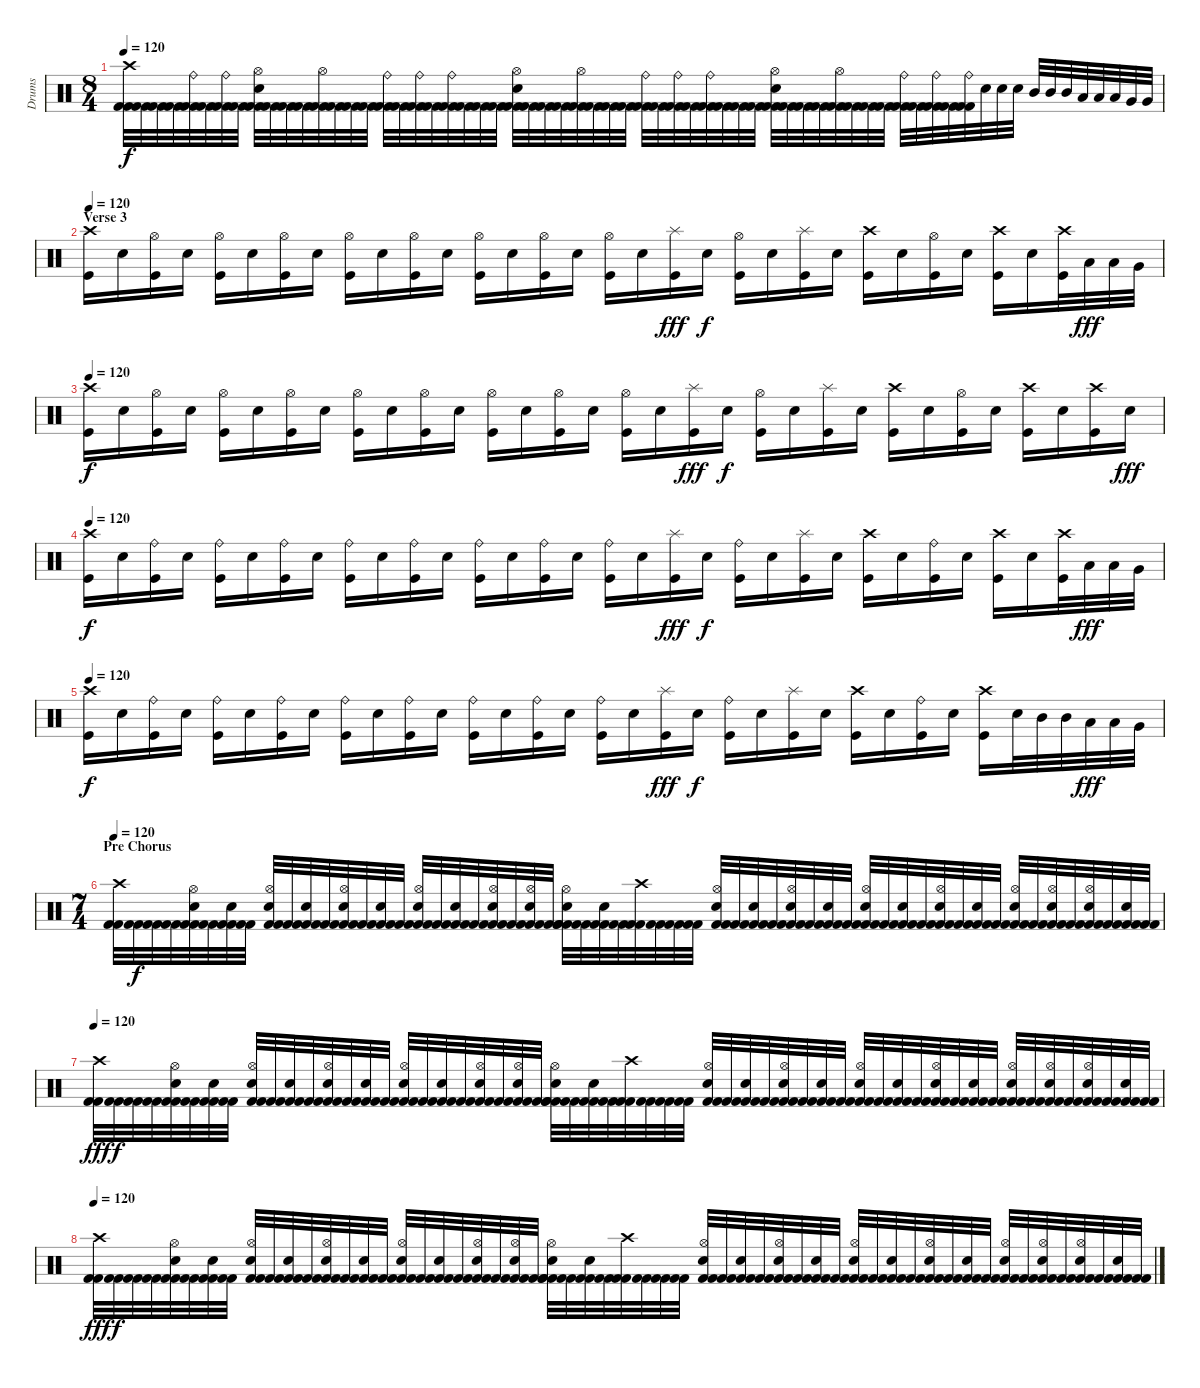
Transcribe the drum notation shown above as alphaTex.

\track ("Drums" "Drums") {instrument percussion}
\staff {score}
\articulation defaults
\ts (8 4)
\tempo 120
\clef neutral
\ks c
("Crash high (hit)" "Kick (hit) 2" "Kick (hit) 2").32{dy f} ("Kick (hit) 2" "Kick (hit) 2").32 ("Kick (hit) 2" "Kick (hit) 2").32 ("Kick (hit) 2" "Kick (hit) 2").32 ("Ride (bell)" "Kick (hit) 2" "Kick (hit) 2").32 ("Kick (hit) 2" "Kick (hit) 2").32 ("Ride (bell)" "Kick (hit) 2" "Kick (hit) 2").32 ("Kick (hit) 2" "Kick (hit) 2").32 ("Hi-Hat (open)" "Electric Snare (hit)" "Kick (hit) 2" "Kick (hit) 2").32 ("Kick (hit) 2" "Kick (hit) 2").32 ("Kick (hit) 2" "Kick (hit) 2").32 ("Kick (hit) 2" "Kick (hit) 2").32 ("Hi-Hat (open)" "Kick (hit) 2" "Kick (hit) 2").32 ("Kick (hit) 2" "Kick (hit) 2").32 ("Kick (hit) 2" "Kick (hit) 2").32 ("Kick (hit) 2" "Kick (hit) 2").32 ("Ride (bell)" "Kick (hit) 2" "Kick (hit) 2").32 ("Kick (hit) 2" "Kick (hit) 2").32 ("Ride (bell)" "Kick (hit) 2" "Kick (hit) 2").32 ("Kick (hit) 2" "Kick (hit) 2").32 ("Ride (bell)" "Kick (hit) 2" "Kick (hit) 2").32 ("Kick (hit) 2" "Kick (hit) 2").32 ("Kick (hit) 2" "Kick (hit) 2").32 ("Kick (hit) 2" "Kick (hit) 2").32 ("Hi-Hat (open)" "Electric Snare (hit)" "Kick (hit) 2" "Kick (hit) 2").32 ("Kick (hit) 2" "Kick (hit) 2").32 ("Kick (hit) 2" "Kick (hit) 2").32 ("Kick (hit) 2" "Kick (hit) 2").32 ("Hi-Hat (open)" "Kick (hit) 2" "Kick (hit) 2").32 ("Kick (hit) 2" "Kick (hit) 2").32 ("Kick (hit) 2" "Kick (hit) 2").32 ("Kick (hit) 2" "Kick (hit) 2").32 ("Ride (bell)" "Kick (hit) 2" "Kick (hit) 2").32 ("Kick (hit) 2" "Kick (hit) 2").32 ("Ride (bell)" "Kick (hit) 2" "Kick (hit) 2").32 ("Kick (hit) 2" "Kick (hit) 2").32 ("Ride (bell)" "Kick (hit) 2" "Kick (hit) 2").32 ("Kick (hit) 2" "Kick (hit) 2").32 ("Kick (hit) 2" "Kick (hit) 2").32 ("Kick (hit) 2" "Kick (hit) 2").32 ("Hi-Hat (open)" "Electric Snare (hit)" "Kick (hit) 2" "Kick (hit) 2").32 ("Kick (hit) 2" "Kick (hit) 2").32 ("Kick (hit) 2" "Kick (hit) 2").32 ("Kick (hit) 2" "Kick (hit) 2").32 ("Hi-Hat (open)" "Kick (hit) 2" "Kick (hit) 2").32 ("Kick (hit) 2" "Kick (hit) 2").32 ("Kick (hit) 2" "Kick (hit) 2").32 ("Kick (hit) 2" "Kick (hit) 2").32 ("Ride (bell)" "Kick (hit) 2" "Kick (hit) 2").32 ("Kick (hit) 2" "Kick (hit) 2").32 ("Ride (bell)" "Kick (hit) 2" "Kick (hit) 2").32 ("Kick (hit) 2" "Kick (hit) 2").32 ("Ride (bell)" "Kick (hit) 2" "Kick (hit) 2").32 "Electric Snare (hit)".32 "Electric Snare (hit)".32 "Electric Snare (hit)".32 "Mid Tom (hit)".32 "Mid Tom (hit)".32 "Mid Tom (hit)".32 "Low Tom (hit)".32 "Low Tom (hit)".32 "Low Tom (hit)".32 "Very Low Tom (hit)".32 "Very Low Tom (hit)".32 |
\section ("" "Verse 3")
\tempo 120
("Crash high (hit)" "Kick (hit)").16 "Electric Snare (hit)".16 ("Hi-Hat (open)" "Kick (hit)").16 "Electric Snare (hit)".16 ("Hi-Hat (open)" "Kick (hit)").16 "Electric Snare (hit)".16 ("Hi-Hat (open)" "Kick (hit)").16 "Electric Snare (hit)".16 ("Hi-Hat (open)" "Kick (hit)").16 "Electric Snare (hit)".16 ("Hi-Hat (open)" "Kick (hit)").16 "Electric Snare (hit)".16 ("Hi-Hat (open)" "Kick (hit)").16 "Electric Snare (hit)".16 ("Hi-Hat (open)" "Kick (hit)").16 "Electric Snare (hit)".16 ("Hi-Hat (open)" "Kick (hit)").16 "Electric Snare (hit)".16 ("Splash (hit)" "Kick (hit)").16{dy fff} "Electric Snare (hit)".16{dy f} ("Hi-Hat (open)" "Kick (hit)").16 "Electric Snare (hit)".16 ("Splash (hit)" "Kick (hit)").16 "Electric Snare (hit)".16 ("Crash high (hit)" "Kick (hit)").16 "Electric Snare (hit)".16 ("Hi-Hat (open)" "Kick (hit)").16 "Electric Snare (hit)".16 ("Crash high (hit)" "Kick (hit)").16 "Electric Snare (hit)".16 ("Crash high (hit)" "Kick (hit)").32 "Low Tom (hit)".32{dy fff} "Low Tom (hit)".32 "Very Low Tom (hit)".32 |
\tempo 120
("Crash high (hit)" "Kick (hit)").16{dy f} "Electric Snare (hit)".16 ("Hi-Hat (open)" "Kick (hit)").16 "Electric Snare (hit)".16 ("Hi-Hat (open)" "Kick (hit)").16 "Electric Snare (hit)".16 ("Hi-Hat (open)" "Kick (hit)").16 "Electric Snare (hit)".16 ("Hi-Hat (open)" "Kick (hit)").16 "Electric Snare (hit)".16 ("Hi-Hat (open)" "Kick (hit)").16 "Electric Snare (hit)".16 ("Hi-Hat (open)" "Kick (hit)").16 "Electric Snare (hit)".16 ("Hi-Hat (open)" "Kick (hit)").16 "Electric Snare (hit)".16 ("Hi-Hat (open)" "Kick (hit)").16 "Electric Snare (hit)".16 ("Splash (hit)" "Kick (hit)").16{dy fff} "Electric Snare (hit)".16{dy f} ("Hi-Hat (open)" "Kick (hit)").16 "Electric Snare (hit)".16 ("Splash (hit)" "Kick (hit)").16 "Electric Snare (hit)".16 ("Crash high (hit)" "Kick (hit)").16 "Electric Snare (hit)".16 ("Hi-Hat (open)" "Kick (hit)").16 "Electric Snare (hit)".16 ("Crash high (hit)" "Kick (hit)").16 "Electric Snare (hit)".16 ("Crash high (hit)" "Kick (hit)").16 "Electric Snare (hit)".16{dy fff} |
\tempo 120
("Crash high (hit)" "Kick (hit)").16{dy f} "Electric Snare (hit)".16 ("Ride (bell)" "Kick (hit)").16 "Electric Snare (hit)".16 ("Ride (bell)" "Kick (hit)").16 "Electric Snare (hit)".16 ("Ride (bell)" "Kick (hit)").16 "Electric Snare (hit)".16 ("Ride (bell)" "Kick (hit)").16 "Electric Snare (hit)".16 ("Ride (bell)" "Kick (hit)").16 "Electric Snare (hit)".16 ("Ride (bell)" "Kick (hit)").16 "Electric Snare (hit)".16 ("Ride (bell)" "Kick (hit)").16 "Electric Snare (hit)".16 ("Ride (bell)" "Kick (hit)").16 "Electric Snare (hit)".16 ("Splash (hit)" "Kick (hit)").16{dy fff} "Electric Snare (hit)".16{dy f} ("Ride (bell)" "Kick (hit)").16 "Electric Snare (hit)".16 ("Splash (hit)" "Kick (hit)").16 "Electric Snare (hit)".16 ("Crash high (hit)" "Kick (hit)").16 "Electric Snare (hit)".16 ("Ride (bell)" "Kick (hit)").16 "Electric Snare (hit)".16 ("Crash high (hit)" "Kick (hit)").16 "Electric Snare (hit)".16 ("Crash high (hit)" "Kick (hit)").32 "Low Tom (hit)".32{dy fff} "Low Tom (hit)".32 "Very Low Tom (hit)".32 |
\tempo 120
("Crash high (hit)" "Kick (hit)").16{dy f} "Electric Snare (hit)".16 ("Ride (bell)" "Kick (hit)").16 "Electric Snare (hit)".16 ("Ride (bell)" "Kick (hit)").16 "Electric Snare (hit)".16 ("Ride (bell)" "Kick (hit)").16 "Electric Snare (hit)".16 ("Ride (bell)" "Kick (hit)").16 "Electric Snare (hit)".16 ("Ride (bell)" "Kick (hit)").16 "Electric Snare (hit)".16 ("Ride (bell)" "Kick (hit)").16 "Electric Snare (hit)".16 ("Ride (bell)" "Kick (hit)").16 "Electric Snare (hit)".16 ("Ride (bell)" "Kick (hit)").16 "Electric Snare (hit)".16 ("Splash (hit)" "Kick (hit)").16{dy fff} "Electric Snare (hit)".16{dy f} ("Ride (bell)" "Kick (hit)").16 "Electric Snare (hit)".16 ("Splash (hit)" "Kick (hit)").16 "Electric Snare (hit)".16 ("Crash high (hit)" "Kick (hit)").16 "Electric Snare (hit)".16 ("Ride (bell)" "Kick (hit)").16 "Electric Snare (hit)".16 ("Crash high (hit)" "Kick (hit)").16 "Electric Snare (hit)".32 "Mid Tom (hit)".32 "Mid Tom (hit)".32 "Low Tom (hit)".32{dy fff} "Low Tom (hit)".32 "Very Low Tom (hit)".32 |
\ts (7 4)
\section ("" "Pre Chorus")
\tempo 120
("Crash high (hit)" "Kick (hit) 2" "Kick (hit) 2").32 ("Kick (hit) 2" "Kick (hit) 2").32{dy f} ("Kick (hit) 2" "Kick (hit) 2").32 ("Kick (hit) 2" "Kick (hit) 2").32 ("Hi-Hat (open)" "Electric Snare (hit)" "Kick (hit) 2" "Kick (hit) 2").32 ("Kick (hit) 2" "Kick (hit) 2").32 ("Electric Snare (hit)" "Kick (hit) 2" "Kick (hit) 2").32 ("Kick (hit) 2" "Kick (hit) 2").32 ("Hi-Hat (open)" "Electric Snare (hit)" "Kick (hit) 2" "Kick (hit) 2").32 ("Kick (hit) 2" "Kick (hit) 2").32 ("Electric Snare (hit)" "Kick (hit) 2" "Kick (hit) 2").32 ("Kick (hit) 2" "Kick (hit) 2").32 ("Hi-Hat (open)" "Electric Snare (hit)" "Kick (hit) 2" "Kick (hit) 2").32 ("Kick (hit) 2" "Kick (hit) 2").32 ("Electric Snare (hit)" "Kick (hit) 2" "Kick (hit) 2").32 ("Kick (hit) 2" "Kick (hit) 2").32 ("Hi-Hat (open)" "Electric Snare (hit)" "Kick (hit) 2" "Kick (hit) 2").32 ("Kick (hit) 2" "Kick (hit) 2").32 ("Electric Snare (hit)" "Kick (hit) 2" "Kick (hit) 2").32 ("Kick (hit) 2" "Kick (hit) 2").32 ("Hi-Hat (open)" "Electric Snare (hit)" "Kick (hit) 2" "Kick (hit) 2").32 ("Kick (hit) 2" "Kick (hit) 2").32 ("Hi-Hat (open)" "Electric Snare (hit)" "Kick (hit) 2" "Kick (hit) 2").32 ("Kick (hit) 2" "Kick (hit) 2").32 ("Hi-Hat (open)" "Electric Snare (hit)" "Kick (hit) 2" "Kick (hit) 2").32 ("Kick (hit) 2" "Kick (hit) 2").32 ("Electric Snare (hit)" "Kick (hit) 2" "Kick (hit) 2").32 ("Kick (hit) 2" "Kick (hit) 2").32 ("Crash high (hit)" "Kick (hit) 2" "Kick (hit) 2").32 ("Kick (hit) 2" "Kick (hit) 2").32 ("Kick (hit) 2" "Kick (hit) 2").32 ("Kick (hit) 2" "Kick (hit) 2").32 ("Hi-Hat (open)" "Electric Snare (hit)" "Kick (hit) 2" "Kick (hit) 2").32 ("Kick (hit) 2" "Kick (hit) 2").32 ("Electric Snare (hit)" "Kick (hit) 2" "Kick (hit) 2").32 ("Kick (hit) 2" "Kick (hit) 2").32 ("Hi-Hat (open)" "Electric Snare (hit)" "Kick (hit) 2" "Kick (hit) 2").32 ("Kick (hit) 2" "Kick (hit) 2").32 ("Electric Snare (hit)" "Kick (hit) 2" "Kick (hit) 2").32 ("Kick (hit) 2" "Kick (hit) 2").32 ("Hi-Hat (open)" "Electric Snare (hit)" "Kick (hit) 2" "Kick (hit) 2").32 ("Kick (hit) 2" "Kick (hit) 2").32 ("Electric Snare (hit)" "Kick (hit) 2" "Kick (hit) 2").32 ("Kick (hit) 2" "Kick (hit) 2").32 ("Hi-Hat (open)" "Electric Snare (hit)" "Kick (hit) 2" "Kick (hit) 2").32 ("Kick (hit) 2" "Kick (hit) 2").32 ("Electric Snare (hit)" "Kick (hit) 2" "Kick (hit) 2").32 ("Kick (hit) 2" "Kick (hit) 2").32 ("Hi-Hat (open)" "Electric Snare (hit)" "Kick (hit) 2" "Kick (hit) 2").32 ("Kick (hit) 2" "Kick (hit) 2").32 ("Hi-Hat (open)" "Electric Snare (hit)" "Kick (hit) 2" "Kick (hit) 2").32 ("Kick (hit) 2" "Kick (hit) 2").32 ("Hi-Hat (open)" "Electric Snare (hit)" "Kick (hit) 2" "Kick (hit) 2").32 ("Kick (hit) 2" "Kick (hit) 2").32 ("Electric Snare (hit)" "Kick (hit) 2" "Kick (hit) 2").32 ("Kick (hit) 2" "Kick (hit) 2").32 |
\tempo 120
("Crash high (hit)" "Kick (hit) 2" "Kick (hit) 2").32{dy fff} ("Kick (hit) 2" "Kick (hit) 2").32{dy f} ("Kick (hit) 2" "Kick (hit) 2").32 ("Kick (hit) 2" "Kick (hit) 2").32 ("Hi-Hat (open)" "Electric Snare (hit)" "Kick (hit) 2" "Kick (hit) 2").32 ("Kick (hit) 2" "Kick (hit) 2").32 ("Electric Snare (hit)" "Kick (hit) 2" "Kick (hit) 2").32 ("Kick (hit) 2" "Kick (hit) 2").32 ("Hi-Hat (open)" "Electric Snare (hit)" "Kick (hit) 2" "Kick (hit) 2").32 ("Kick (hit) 2" "Kick (hit) 2").32 ("Electric Snare (hit)" "Kick (hit) 2" "Kick (hit) 2").32 ("Kick (hit) 2" "Kick (hit) 2").32 ("Hi-Hat (open)" "Electric Snare (hit)" "Kick (hit) 2" "Kick (hit) 2").32 ("Kick (hit) 2" "Kick (hit) 2").32 ("Electric Snare (hit)" "Kick (hit) 2" "Kick (hit) 2").32 ("Kick (hit) 2" "Kick (hit) 2").32 ("Hi-Hat (open)" "Electric Snare (hit)" "Kick (hit) 2" "Kick (hit) 2").32 ("Kick (hit) 2" "Kick (hit) 2").32 ("Electric Snare (hit)" "Kick (hit) 2" "Kick (hit) 2").32 ("Kick (hit) 2" "Kick (hit) 2").32 ("Hi-Hat (open)" "Electric Snare (hit)" "Kick (hit) 2" "Kick (hit) 2").32 ("Kick (hit) 2" "Kick (hit) 2").32 ("Hi-Hat (open)" "Electric Snare (hit)" "Kick (hit) 2" "Kick (hit) 2").32 ("Kick (hit) 2" "Kick (hit) 2").32 ("Hi-Hat (open)" "Electric Snare (hit)" "Kick (hit) 2" "Kick (hit) 2").32 ("Kick (hit) 2" "Kick (hit) 2").32 ("Electric Snare (hit)" "Kick (hit) 2" "Kick (hit) 2").32 ("Kick (hit) 2" "Kick (hit) 2").32 ("Crash high (hit)" "Kick (hit) 2" "Kick (hit) 2").32 ("Kick (hit) 2" "Kick (hit) 2").32 ("Kick (hit) 2" "Kick (hit) 2").32 ("Kick (hit) 2" "Kick (hit) 2").32 ("Hi-Hat (open)" "Electric Snare (hit)" "Kick (hit) 2" "Kick (hit) 2").32 ("Kick (hit) 2" "Kick (hit) 2").32 ("Electric Snare (hit)" "Kick (hit) 2" "Kick (hit) 2").32 ("Kick (hit) 2" "Kick (hit) 2").32 ("Hi-Hat (open)" "Electric Snare (hit)" "Kick (hit) 2" "Kick (hit) 2").32 ("Kick (hit) 2" "Kick (hit) 2").32 ("Electric Snare (hit)" "Kick (hit) 2" "Kick (hit) 2").32 ("Kick (hit) 2" "Kick (hit) 2").32 ("Hi-Hat (open)" "Electric Snare (hit)" "Kick (hit) 2" "Kick (hit) 2").32 ("Kick (hit) 2" "Kick (hit) 2").32 ("Electric Snare (hit)" "Kick (hit) 2" "Kick (hit) 2").32 ("Kick (hit) 2" "Kick (hit) 2").32 ("Hi-Hat (open)" "Electric Snare (hit)" "Kick (hit) 2" "Kick (hit) 2").32 ("Kick (hit) 2" "Kick (hit) 2").32 ("Electric Snare (hit)" "Kick (hit) 2" "Kick (hit) 2").32 ("Kick (hit) 2" "Kick (hit) 2").32 ("Hi-Hat (open)" "Electric Snare (hit)" "Kick (hit) 2" "Kick (hit) 2").32 ("Kick (hit) 2" "Kick (hit) 2").32 ("Hi-Hat (open)" "Electric Snare (hit)" "Kick (hit) 2" "Kick (hit) 2").32 ("Kick (hit) 2" "Kick (hit) 2").32 ("Hi-Hat (open)" "Electric Snare (hit)" "Kick (hit) 2" "Kick (hit) 2").32 ("Kick (hit) 2" "Kick (hit) 2").32 ("Electric Snare (hit)" "Kick (hit) 2" "Kick (hit) 2").32 ("Kick (hit) 2" "Kick (hit) 2").32 |
\tempo 120
("Crash high (hit)" "Kick (hit) 2" "Kick (hit) 2").32{dy fff} ("Kick (hit) 2" "Kick (hit) 2").32{dy f} ("Kick (hit) 2" "Kick (hit) 2").32 ("Kick (hit) 2" "Kick (hit) 2").32 ("Hi-Hat (open)" "Electric Snare (hit)" "Kick (hit) 2" "Kick (hit) 2").32 ("Kick (hit) 2" "Kick (hit) 2").32 ("Electric Snare (hit)" "Kick (hit) 2" "Kick (hit) 2").32 ("Kick (hit) 2" "Kick (hit) 2").32 ("Hi-Hat (open)" "Electric Snare (hit)" "Kick (hit) 2" "Kick (hit) 2").32 ("Kick (hit) 2" "Kick (hit) 2").32 ("Electric Snare (hit)" "Kick (hit) 2" "Kick (hit) 2").32 ("Kick (hit) 2" "Kick (hit) 2").32 ("Hi-Hat (open)" "Electric Snare (hit)" "Kick (hit) 2" "Kick (hit) 2").32 ("Kick (hit) 2" "Kick (hit) 2").32 ("Electric Snare (hit)" "Kick (hit) 2" "Kick (hit) 2").32 ("Kick (hit) 2" "Kick (hit) 2").32 ("Hi-Hat (open)" "Electric Snare (hit)" "Kick (hit) 2" "Kick (hit) 2").32 ("Kick (hit) 2" "Kick (hit) 2").32 ("Electric Snare (hit)" "Kick (hit) 2" "Kick (hit) 2").32 ("Kick (hit) 2" "Kick (hit) 2").32 ("Hi-Hat (open)" "Electric Snare (hit)" "Kick (hit) 2" "Kick (hit) 2").32 ("Kick (hit) 2" "Kick (hit) 2").32 ("Hi-Hat (open)" "Electric Snare (hit)" "Kick (hit) 2" "Kick (hit) 2").32 ("Kick (hit) 2" "Kick (hit) 2").32 ("Hi-Hat (open)" "Electric Snare (hit)" "Kick (hit) 2" "Kick (hit) 2").32 ("Kick (hit) 2" "Kick (hit) 2").32 ("Electric Snare (hit)" "Kick (hit) 2" "Kick (hit) 2").32 ("Kick (hit) 2" "Kick (hit) 2").32 ("Crash high (hit)" "Kick (hit) 2" "Kick (hit) 2").32 ("Kick (hit) 2" "Kick (hit) 2").32 ("Kick (hit) 2" "Kick (hit) 2").32 ("Kick (hit) 2" "Kick (hit) 2").32 ("Hi-Hat (open)" "Electric Snare (hit)" "Kick (hit) 2" "Kick (hit) 2").32 ("Kick (hit) 2" "Kick (hit) 2").32 ("Electric Snare (hit)" "Kick (hit) 2" "Kick (hit) 2").32 ("Kick (hit) 2" "Kick (hit) 2").32 ("Hi-Hat (open)" "Electric Snare (hit)" "Kick (hit) 2" "Kick (hit) 2").32 ("Kick (hit) 2" "Kick (hit) 2").32 ("Electric Snare (hit)" "Kick (hit) 2" "Kick (hit) 2").32 ("Kick (hit) 2" "Kick (hit) 2").32 ("Hi-Hat (open)" "Electric Snare (hit)" "Kick (hit) 2" "Kick (hit) 2").32 ("Kick (hit) 2" "Kick (hit) 2").32 ("Electric Snare (hit)" "Kick (hit) 2" "Kick (hit) 2").32 ("Kick (hit) 2" "Kick (hit) 2").32 ("Hi-Hat (open)" "Electric Snare (hit)" "Kick (hit) 2" "Kick (hit) 2").32 ("Kick (hit) 2" "Kick (hit) 2").32 ("Electric Snare (hit)" "Kick (hit) 2" "Kick (hit) 2").32 ("Kick (hit) 2" "Kick (hit) 2").32 ("Hi-Hat (open)" "Electric Snare (hit)" "Kick (hit) 2" "Kick (hit) 2").32 ("Kick (hit) 2" "Kick (hit) 2").32 ("Hi-Hat (open)" "Electric Snare (hit)" "Kick (hit) 2" "Kick (hit) 2").32 ("Kick (hit) 2" "Kick (hit) 2").32 ("Hi-Hat (open)" "Electric Snare (hit)" "Kick (hit) 2" "Kick (hit) 2").32 ("Kick (hit) 2" "Kick (hit) 2").32 ("Electric Snare (hit)" "Kick (hit) 2" "Kick (hit) 2").32 ("Kick (hit) 2" "Kick (hit) 2").32
